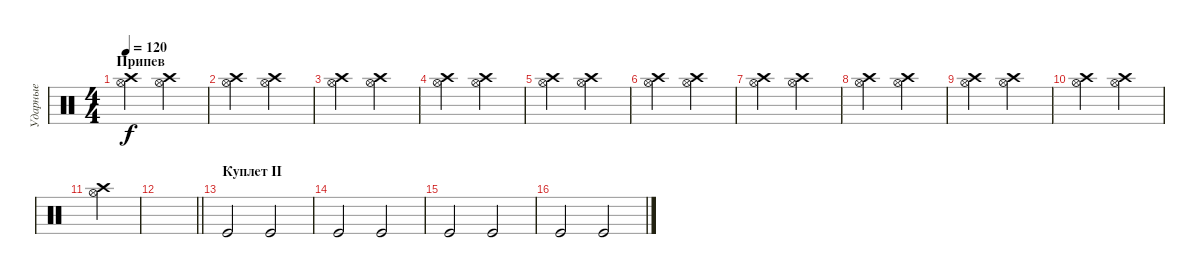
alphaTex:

\track ("Ударные" "Ударные") {instrument percussion}
\staff {score}
\articulation defaults
\ts (4 4)
\section ("" "Припев")
\tempo 120
\clef neutral
\ks c
("Hi-Hat (open)" "Crash high (hit)").4{dy f} ("Hi-Hat (open)" "Crash high (hit)").4 |
("Hi-Hat (open)" "Crash high (hit)").4 ("Hi-Hat (open)" "Crash high (hit)").4 |
("Hi-Hat (open)" "Crash high (hit)").4 ("Hi-Hat (open)" "Crash high (hit)").4 |
("Hi-Hat (open)" "Crash high (hit)").4 ("Hi-Hat (open)" "Crash high (hit)").4 |
("Hi-Hat (open)" "Crash high (hit)").4 ("Hi-Hat (open)" "Crash high (hit)").4 |
("Hi-Hat (open)" "Crash high (hit)").4 ("Hi-Hat (open)" "Crash high (hit)").4 |
("Hi-Hat (open)" "Crash high (hit)").4 ("Hi-Hat (open)" "Crash high (hit)").4 |
("Hi-Hat (open)" "Crash high (hit)").4 ("Hi-Hat (open)" "Crash high (hit)").4 |
("Hi-Hat (open)" "Crash high (hit)").4 ("Hi-Hat (open)" "Crash high (hit)").4 |
("Hi-Hat (open)" "Crash high (hit)").4 ("Hi-Hat (open)" "Crash high (hit)").4 |
("Hi-Hat (open)" "Crash high (hit)").4 |
\barLineRight lightlight
|
\section ("" "Куплет II")
"Kick (hit)".2 "Kick (hit)".2 |
"Kick (hit)".2 "Kick (hit)".2 |
"Kick (hit)".2 "Kick (hit)".2 |
"Kick (hit)".2 "Kick (hit)".2
